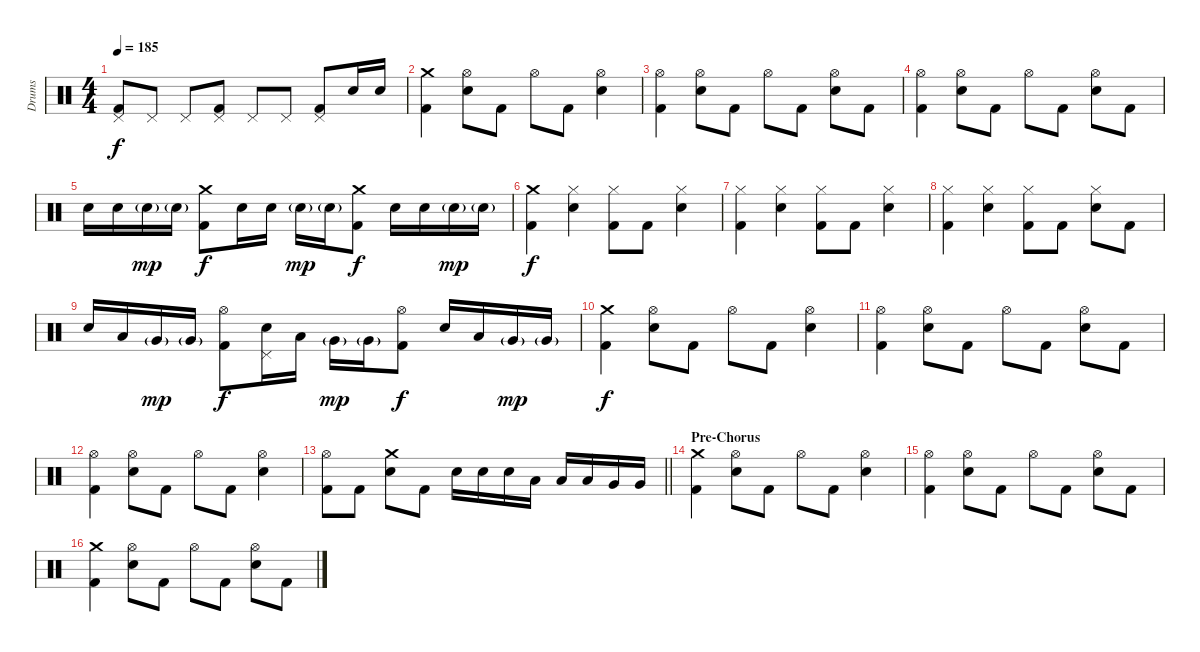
\track ("Drums" "Drums") {instrument percussion}
\staff {score}
\articulation defaults
\ts (4 4)
\tempo 185
\clef neutral
\ks c
("Pedal Hi-Hat (hit)" "Kick (hit) 2").8{dy f} "Pedal Hi-Hat (hit)".8 "Pedal Hi-Hat (hit)".8 ("Pedal Hi-Hat (hit)" "Kick (hit) 2").8 "Pedal Hi-Hat (hit)".8 "Pedal Hi-Hat (hit)".8 ("Pedal Hi-Hat (hit)" "Kick (hit) 2").8 "Electric Snare (hit)".16 "Electric Snare (hit)".16 |
("Crash medium (hit)" "Kick (hit) 2").4 ("Hi-Hat (open)" "Electric Snare (hit)").8 "Kick (hit) 2".8 "Hi-Hat (open)".8 "Kick (hit) 2".8 ("Hi-Hat (open)" "Electric Snare (hit)").4 |
("Hi-Hat (open)" "Kick (hit) 2").4 ("Hi-Hat (open)" "Electric Snare (hit)").8 "Kick (hit) 2".8 "Hi-Hat (open)".8 "Kick (hit) 2".8 ("Hi-Hat (open)" "Electric Snare (hit)").8 "Kick (hit) 2".8 |
("Hi-Hat (open)" "Kick (hit) 2").4 ("Hi-Hat (open)" "Electric Snare (hit)").8 "Kick (hit) 2".8 "Hi-Hat (open)".8 "Kick (hit) 2".8 ("Hi-Hat (open)" "Electric Snare (hit)").8 "Kick (hit) 2".8 |
"Electric Snare (hit)".16 "Electric Snare (hit)".16 "Electric Snare (hit)"{g}.16{dy mp} "Electric Snare (hit)"{g}.16 ("Crash medium (hit)" "Kick (hit) 2").8{dy f} "Electric Snare (hit)".16 "Electric Snare (hit)".16 "Electric Snare (hit)"{g}.16{dy mp} "Electric Snare (hit)"{g}.16 ("Crash medium (hit)" "Kick (hit) 2").8{dy f} "Electric Snare (hit)".16 "Electric Snare (hit)".16 "Electric Snare (hit)"{g}.16{dy mp} "Electric Snare (hit)"{g}.16 |
("Crash medium (hit)" "Kick (hit) 2").4{dy f} ("Hi-Hat (closed)" "Electric Snare (hit)").4 ("Hi-Hat (closed)" "Kick (hit) 2").8 "Kick (hit) 2".8 ("Hi-Hat (closed)" "Electric Snare (hit)").4 |
("Hi-Hat (closed)" "Kick (hit) 2").4 ("Hi-Hat (closed)" "Electric Snare (hit)").4 ("Hi-Hat (closed)" "Kick (hit) 2").8 "Kick (hit) 2".8 ("Hi-Hat (closed)" "Electric Snare (hit)").4 |
("Hi-Hat (closed)" "Kick (hit) 2").4 ("Hi-Hat (closed)" "Electric Snare (hit)").4 ("Hi-Hat (closed)" "Kick (hit) 2").8 "Kick (hit) 2".8 ("Hi-Hat (closed)" "Electric Snare (hit)").8 "Kick (hit) 2".8 |
"Electric Snare (hit)".16 "Low Tom (hit)".16 "Very Low Tom (hit)"{g}.16{dy mp} "Very Low Tom (hit)"{g}.16 ("Hi-Hat (open)" "Kick (hit) 2").8{dy f} ("Pedal Hi-Hat (hit)" "Electric Snare (hit)").16 "Low Tom (hit)".16 "Very Low Tom (hit)"{g}.16{dy mp} "Very Low Tom (hit)"{g}.16 ("Hi-Hat (open)" "Kick (hit) 2").8{dy f} "Electric Snare (hit)".16 "Low Tom (hit)".16 "Very Low Tom (hit)"{g}.16{dy mp} "Very Low Tom (hit)"{g}.16 |
("Crash medium (hit)" "Kick (hit) 2").4{dy f} ("Hi-Hat (open)" "Electric Snare (hit)").8 "Kick (hit) 2".8 "Hi-Hat (open)".8 "Kick (hit) 2".8 ("Hi-Hat (open)" "Electric Snare (hit)").4 |
("Hi-Hat (open)" "Kick (hit) 2").4 ("Hi-Hat (open)" "Electric Snare (hit)").8 "Kick (hit) 2".8 "Hi-Hat (open)".8 "Kick (hit) 2".8 ("Hi-Hat (open)" "Electric Snare (hit)").8 "Kick (hit) 2".8 |
("Hi-Hat (open)" "Kick (hit) 2").4 ("Hi-Hat (open)" "Electric Snare (hit)").8 "Kick (hit) 2".8 "Hi-Hat (open)".8 "Kick (hit) 2".8 ("Hi-Hat (open)" "Electric Snare (hit)").4 |
\barLineRight lightlight
("Hi-Hat (open)" "Kick (hit) 2").8 "Kick (hit) 2".8 ("Crash medium (hit)" "Electric Snare (hit)").8 "Kick (hit) 2".8 "Electric Snare (hit)".16 "Electric Snare (hit)".16 "Electric Snare (hit)".16 "Low Tom (hit)".16 "Low Tom (hit)".16 "Low Tom (hit)".16 "Very Low Tom (hit)".16 "Very Low Tom (hit)".16 |
\section ("" "Pre-Chorus")
("Crash medium (hit)" "Kick (hit) 2").4 ("Hi-Hat (open)" "Electric Snare (hit)").8 "Kick (hit) 2".8 "Hi-Hat (open)".8 "Kick (hit) 2".8 ("Hi-Hat (open)" "Electric Snare (hit)").4 |
("Hi-Hat (open)" "Kick (hit) 2").4 ("Hi-Hat (open)" "Electric Snare (hit)").8 "Kick (hit) 2".8 "Hi-Hat (open)".8 "Kick (hit) 2".8 ("Hi-Hat (open)" "Electric Snare (hit)").8 "Kick (hit) 2".8 |
("Crash medium (hit)" "Kick (hit) 2").4 ("Hi-Hat (open)" "Electric Snare (hit)").8 "Kick (hit) 2".8 "Hi-Hat (open)".8 "Kick (hit) 2".8 ("Hi-Hat (open)" "Electric Snare (hit)").8 "Kick (hit) 2".8
